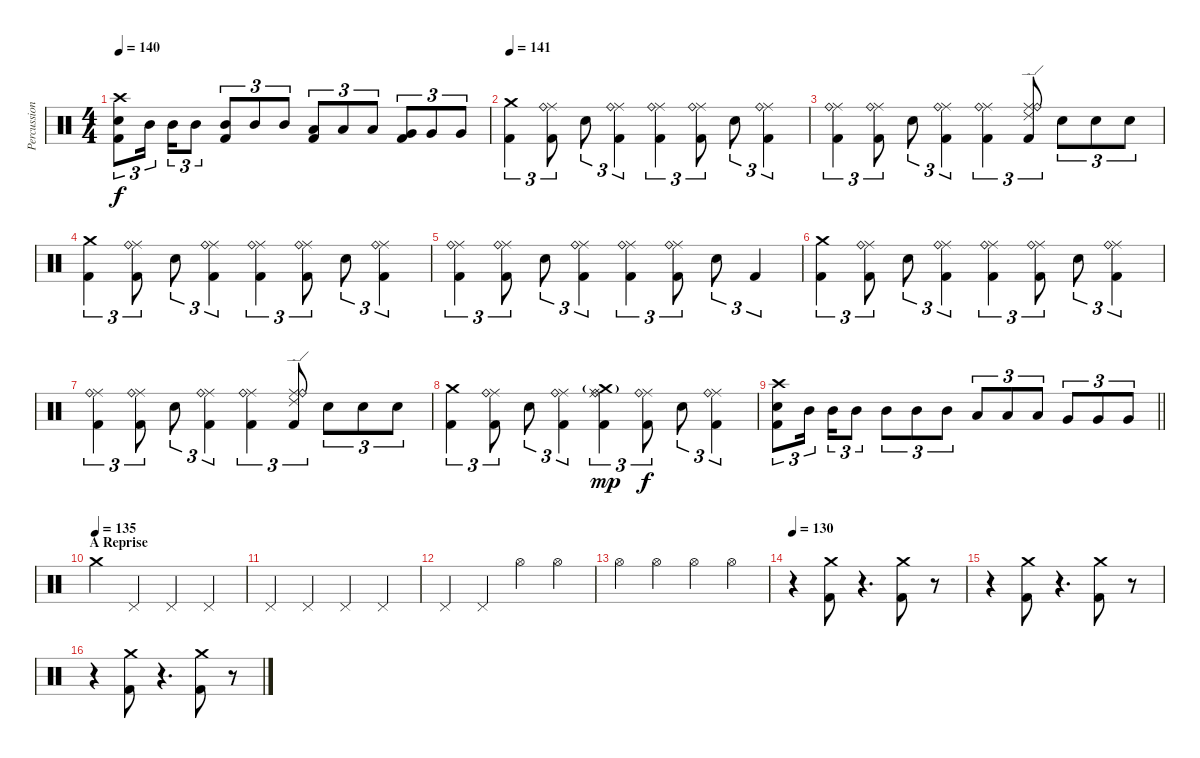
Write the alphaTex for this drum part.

\track ("Percussion" "Percussion") {instrument percussion}
\staff {score}
\articulation defaults
\ts (4 4)
\tempo 140
\clef neutral
\ks c
("Crash high (hit)" "Snare (hit) 2" "Kick (hit) 2").8{tu (3 2) dy f} "Mid Tom (hit)".16{tu (3 2)} "Mid Tom (hit)".16{tu (3 2)} "Mid Tom (hit)".8{tu (3 2)} ("Mid Tom (hit)" "Kick (hit) 2").8{tu (3 2)} "Mid Tom (hit)".8{tu (3 2)} "Mid Tom (hit)".8{tu (3 2)} ("Low Tom (hit)" "Kick (hit) 2").8{tu (3 2)} "Low Tom (hit)".8{tu (3 2)} "Low Tom (hit)".8{tu (3 2)} ("Very Low Tom (hit)" "Kick (hit) 2").8{tu (3 2)} "Very Low Tom (hit)".8{tu (3 2)} "Very Low Tom (hit)".8{tu (3 2)} |
\tempo 141
("Crash medium (hit)" "Kick (hit) 2").4{tu (3 2)} ("Ride (middle)" "Ride (bell)" "Kick (hit) 2").8{tu (3 2)} "Snare (hit) 2".8{tu (3 2)} ("Ride (middle)" "Ride (bell)" "Kick (hit) 2").4{tu (3 2)} ("Ride (middle)" "Ride (bell)" "Kick (hit) 2").4{tu (3 2)} ("Ride (middle)" "Ride (bell)" "Kick (hit) 2").8{tu (3 2)} "Snare (hit) 2".8{tu (3 2)} ("Ride (middle)" "Ride (bell)" "Kick (hit) 2").4{tu (3 2)} |
("Ride (middle)" "Ride (bell)" "Kick (hit) 2").4{tu (3 2)} ("Ride (middle)" "Ride (bell)" "Kick (hit) 2").8{tu (3 2)} "Snare (hit) 2".8{tu (3 2)} ("Ride (middle)" "Ride (bell)" "Kick (hit) 2").4{tu (3 2)} ("Ride (middle)" "Ride (bell)" "Kick (hit) 2").4{tu (3 2)} ("Ride (middle)" "Ride (bell)" "Ride (edge) 2" "Kick (hit) 2").8{tu (3 2)} "Snare (hit) 2".8{tu (3 2)} "Snare (hit) 2".8{tu (3 2)} "Snare (hit) 2".8{tu (3 2)} |
("Crash medium (hit)" "Kick (hit) 2").4{tu (3 2)} ("Ride (middle)" "Ride (bell)" "Kick (hit) 2").8{tu (3 2)} "Snare (hit) 2".8{tu (3 2)} ("Ride (middle)" "Ride (bell)" "Kick (hit) 2").4{tu (3 2)} ("Ride (middle)" "Ride (bell)" "Kick (hit) 2").4{tu (3 2)} ("Ride (middle)" "Ride (bell)" "Kick (hit) 2").8{tu (3 2)} "Snare (hit) 2".8{tu (3 2)} ("Ride (middle)" "Ride (bell)" "Kick (hit) 2").4{tu (3 2)} |
("Ride (middle)" "Ride (bell)" "Kick (hit) 2").4{tu (3 2)} ("Ride (middle)" "Ride (bell)" "Kick (hit) 2").8{tu (3 2)} "Snare (hit) 2".8{tu (3 2)} ("Ride (middle)" "Ride (bell)" "Kick (hit) 2").4{tu (3 2)} ("Ride (middle)" "Ride (bell)" "Kick (hit) 2").4{tu (3 2)} ("Ride (middle)" "Ride (bell)" "Kick (hit) 2").8{tu (3 2)} "Snare (hit) 2".8{tu (3 2)} "Kick (hit) 2".4{tu (3 2)} |
("Crash medium (hit)" "Kick (hit) 2").4{tu (3 2)} ("Ride (middle)" "Ride (bell)" "Kick (hit) 2").8{tu (3 2)} "Snare (hit) 2".8{tu (3 2)} ("Ride (middle)" "Ride (bell)" "Kick (hit) 2").4{tu (3 2)} ("Ride (middle)" "Ride (bell)" "Kick (hit) 2").4{tu (3 2)} ("Ride (middle)" "Ride (bell)" "Kick (hit) 2").8{tu (3 2)} "Snare (hit) 2".8{tu (3 2)} ("Ride (middle)" "Ride (bell)" "Kick (hit) 2").4{tu (3 2)} |
("Ride (middle)" "Ride (bell)" "Kick (hit) 2").4{tu (3 2)} ("Ride (middle)" "Ride (bell)" "Kick (hit) 2").8{tu (3 2)} "Snare (hit) 2".8{tu (3 2)} ("Ride (middle)" "Ride (bell)" "Kick (hit) 2").4{tu (3 2)} ("Ride (middle)" "Ride (bell)" "Kick (hit) 2").4{tu (3 2)} ("Ride (middle)" "Ride (bell)" "Ride (edge) 2" "Kick (hit) 2").8{tu (3 2)} "Snare (hit) 2".8{tu (3 2)} "Snare (hit) 2".8{tu (3 2)} "Snare (hit) 2".8{tu (3 2)} |
("Crash medium (hit)" "Kick (hit) 2").4{tu (3 2)} ("Ride (middle)" "Ride (bell)" "Kick (hit) 2").8{tu (3 2)} "Snare (hit) 2".8{tu (3 2)} ("Ride (middle)" "Ride (bell)" "Kick (hit) 2").4{tu (3 2)} ("Crash medium (hit)"{g} "Ride (bell)" "Ride (middle)" "Kick (hit) 2").4{tu (3 2) dy mp} ("Ride (middle)" "Ride (bell)" "Kick (hit) 2").8{tu (3 2) dy f} "Snare (hit) 2".8{tu (3 2)} ("Ride (middle)" "Ride (bell)" "Kick (hit) 2").4{tu (3 2)} |
\barLineRight lightlight
("Crash high (hit)" "Snare (hit) 2" "Kick (hit) 2").8{tu (3 2)} "Mid Tom (hit)".16{tu (3 2)} "Mid Tom (hit)".16{tu (3 2)} "Mid Tom (hit)".8{tu (3 2)} "Mid Tom (hit)".8{tu (3 2)} "Mid Tom (hit)".8{tu (3 2)} "Mid Tom (hit)".8{tu (3 2)} "Low Tom (hit)".8{tu (3 2)} "Low Tom (hit)".8{tu (3 2)} "Low Tom (hit)".8{tu (3 2)} "Very Low Tom (hit)".8{tu (3 2)} "Very Low Tom (hit)".8{tu (3 2)} "Very Low Tom (hit)".8{tu (3 2)} |
\section ("" "A Reprise")
\tempo (135)
"Crash medium (hit)".4 "Pedal Hi-Hat (hit)".4 "Pedal Hi-Hat (hit)".4 "Pedal Hi-Hat (hit)".4 |
"Pedal Hi-Hat (hit)".4 "Pedal Hi-Hat (hit)".4 "Pedal Hi-Hat (hit)".4 "Pedal Hi-Hat (hit)".4 |
"Pedal Hi-Hat (hit)".4 "Pedal Hi-Hat (hit)".4 "Hi-Hat (open)".4{volume 10} "Hi-Hat (open)".4{volume 13} |
"Hi-Hat (open)".4 "Hi-Hat (open)".4 "Hi-Hat (open)".4 "Hi-Hat (open)".4 |
\tempo 130
r.4 ("Crash medium (hit)" "Kick (hit) 2").8 r.4{d volume 0} ("Crash medium (hit)" "Kick (hit) 2").8{volume 14} r.8{volume 0} |
r.4 ("Crash medium (hit)" "Kick (hit) 2").8{volume 14} r.4{d volume 0} ("Crash medium (hit)" "Kick (hit) 2").8{volume 14} r.8{volume 0} |
r.4 ("Crash medium (hit)" "Kick (hit) 2").8{volume 14} r.4{d volume 0} ("Crash medium (hit)" "Kick (hit) 2").8{volume 14} r.8{volume 0}
